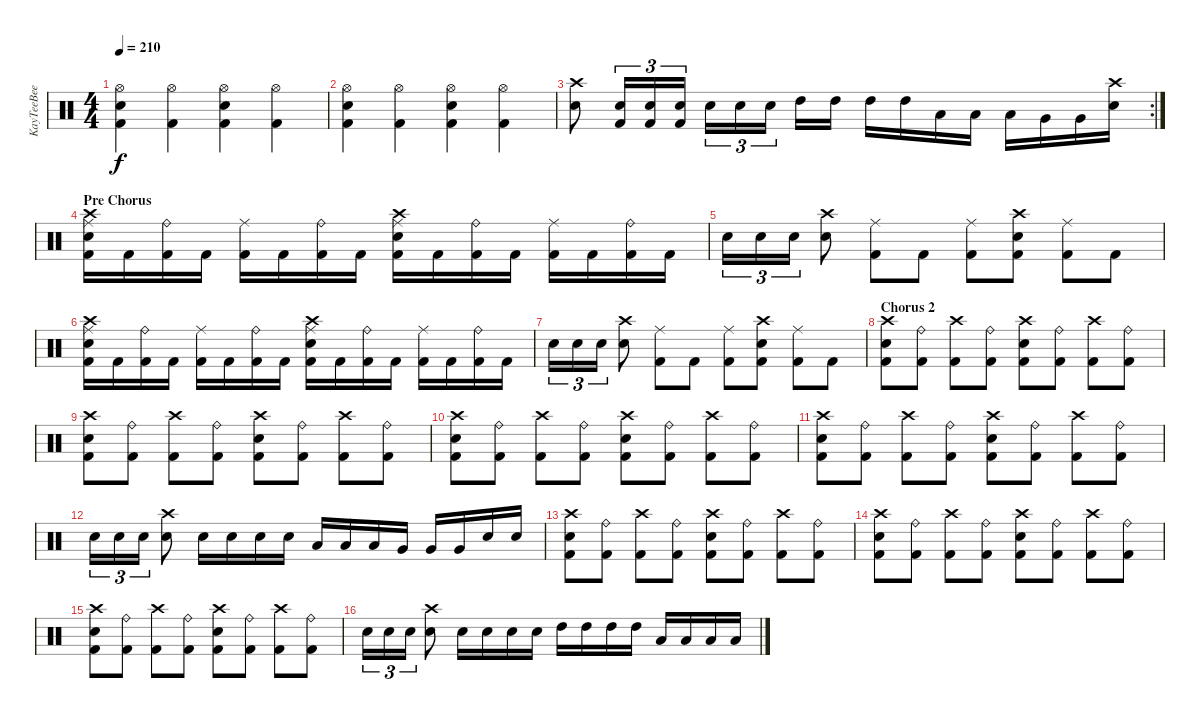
\track ("KayTeeBee" "KayTeeBee") {instrument percussion}
\staff {score}
\articulation defaults
\ts (4 4)
\tempo 210
\clef neutral
\ks c
("Hi-Hat (open)" "Electric Snare (hit)" "Kick (hit) 2").4{dy f} ("Hi-Hat (open)" "Kick (hit) 2").4 ("Hi-Hat (open)" "Electric Snare (hit)" "Kick (hit) 2").4 ("Hi-Hat (open)" "Kick (hit) 2").4 |
("Hi-Hat (open)" "Electric Snare (hit)" "Kick (hit) 2").4 ("Hi-Hat (open)" "Kick (hit) 2").4 ("Hi-Hat (open)" "Electric Snare (hit)" "Kick (hit) 2").4 ("Hi-Hat (open)" "Kick (hit) 2").4 |
\rc 2
("Crash high (hit)" "Electric Snare (hit)").8 ("Kick (hit) 2" "Electric Snare (hit)").16{tu (3 2)} ("Kick (hit) 2" "Electric Snare (hit)").16{tu (3 2)} ("Kick (hit) 2" "Electric Snare (hit)").16{tu (3 2)} "Electric Snare (hit)".16{tu (3 2)} "Electric Snare (hit)".16{tu (3 2)} "Electric Snare (hit)".16{tu (3 2)} "High Tom (hit)".16 "High Tom (hit)".16 "High Tom (hit)".16 "High Tom (hit)".16 "Low Tom (hit)".16 "Low Tom (hit)".16 "Low Tom (hit)".16 "Very Low Tom (hit)".16 "Very Low Tom (hit)".16 ("Electric Snare (hit)" "Crash high (hit)").16 |
\section ("" "Pre Chorus")
("Kick (hit) 2" "Electric Snare (hit)" "Crash high (hit)" "Ride (middle)").16 "Kick (hit) 2".16 ("Kick (hit) 2" "Ride (bell)").16 "Kick (hit) 2".16 ("Kick (hit) 2" "Ride (middle)").16 "Kick (hit) 2".16 ("Kick (hit) 2" "Ride (bell)").16 "Kick (hit) 2".16 ("Kick (hit) 2" "Electric Snare (hit)" "Crash high (hit)" "Ride (middle)").16 "Kick (hit) 2".16 ("Kick (hit) 2" "Ride (bell)").16 "Kick (hit) 2".16 ("Kick (hit) 2" "Ride (middle)").16 "Kick (hit) 2".16 ("Kick (hit) 2" "Ride (bell)").16 "Kick (hit) 2".16 |
"Electric Snare (hit)".16{tu (3 2)} "Electric Snare (hit)".16{tu (3 2)} "Electric Snare (hit)".16{tu (3 2)} ("Crash high (hit)" "Electric Snare (hit)").8 ("Kick (hit) 2" "Ride (middle)").8 "Kick (hit) 2".8 ("Kick (hit) 2" "Ride (middle)").8 ("Kick (hit) 2" "Crash high (hit)" "Electric Snare (hit)").8 ("Kick (hit) 2" "Ride (middle)").8 "Kick (hit) 2".8 |
("Kick (hit) 2" "Electric Snare (hit)" "Crash high (hit)" "Ride (middle)").16 "Kick (hit) 2".16 ("Kick (hit) 2" "Ride (bell)").16 "Kick (hit) 2".16 ("Kick (hit) 2" "Ride (middle)").16 "Kick (hit) 2".16 ("Kick (hit) 2" "Ride (bell)").16 "Kick (hit) 2".16 ("Kick (hit) 2" "Electric Snare (hit)" "Crash high (hit)" "Ride (middle)").16 "Kick (hit) 2".16 ("Kick (hit) 2" "Ride (bell)").16 "Kick (hit) 2".16 ("Kick (hit) 2" "Ride (middle)").16 "Kick (hit) 2".16 ("Kick (hit) 2" "Ride (bell)").16 "Kick (hit) 2".16 |
"Electric Snare (hit)".16{tu (3 2)} "Electric Snare (hit)".16{tu (3 2)} "Electric Snare (hit)".16{tu (3 2)} ("Crash high (hit)" "Electric Snare (hit)").8 ("Kick (hit) 2" "Ride (middle)").8 "Kick (hit) 2".8 ("Kick (hit) 2" "Ride (middle)").8 ("Kick (hit) 2" "Crash high (hit)" "Electric Snare (hit)").8 ("Kick (hit) 2" "Ride (middle)").8 "Kick (hit) 2".8 |
\section ("" "Chorus 2")
("Kick (hit) 2" "Electric Snare (hit)" "Crash high (hit)").8 ("Kick (hit) 2" "Ride (bell)").8 ("Kick (hit) 2" "Crash high (hit)").8 ("Kick (hit) 2" "Ride (bell)").8 ("Kick (hit) 2" "Crash high (hit)" "Electric Snare (hit)").8 ("Kick (hit) 2" "Ride (bell)").8 ("Kick (hit) 2" "Crash high (hit)").8 ("Kick (hit) 2" "Ride (bell)").8 |
("Kick (hit) 2" "Electric Snare (hit)" "Crash high (hit)").8 ("Kick (hit) 2" "Ride (bell)").8 ("Kick (hit) 2" "Crash high (hit)").8 ("Kick (hit) 2" "Ride (bell)").8 ("Kick (hit) 2" "Crash high (hit)" "Electric Snare (hit)").8 ("Kick (hit) 2" "Ride (bell)").8 ("Kick (hit) 2" "Crash high (hit)").8 ("Kick (hit) 2" "Ride (bell)").8 |
("Kick (hit) 2" "Electric Snare (hit)" "Crash high (hit)").8 ("Kick (hit) 2" "Ride (bell)").8 ("Kick (hit) 2" "Crash high (hit)").8 ("Kick (hit) 2" "Ride (bell)").8 ("Kick (hit) 2" "Crash high (hit)" "Electric Snare (hit)").8 ("Kick (hit) 2" "Ride (bell)").8 ("Kick (hit) 2" "Crash high (hit)").8 ("Kick (hit) 2" "Ride (bell)").8 |
("Kick (hit) 2" "Electric Snare (hit)" "Crash high (hit)").8 ("Kick (hit) 2" "Ride (bell)").8 ("Kick (hit) 2" "Crash high (hit)").8 ("Kick (hit) 2" "Ride (bell)").8 ("Kick (hit) 2" "Crash high (hit)" "Electric Snare (hit)").8 ("Kick (hit) 2" "Ride (bell)").8 ("Kick (hit) 2" "Crash high (hit)").8 ("Kick (hit) 2" "Ride (bell)").8 |
"Electric Snare (hit)".16{tu (3 2)} "Electric Snare (hit)".16{tu (3 2)} "Electric Snare (hit)".16{tu (3 2)} ("Electric Snare (hit)" "Crash high (hit)").8 "Electric Snare (hit)".16 "Electric Snare (hit)".16 "Electric Snare (hit)".16 "Electric Snare (hit)".16 "Low Tom (hit)".16 "Low Tom (hit)".16 "Low Tom (hit)".16 "Very Low Tom (hit)".16 "Very Low Tom (hit)".16 "Very Low Tom (hit)".16 "Electric Snare (hit)".16 "Electric Snare (hit)".16 |
("Kick (hit) 2" "Electric Snare (hit)" "Crash high (hit)").8 ("Kick (hit) 2" "Ride (bell)").8 ("Kick (hit) 2" "Crash high (hit)").8 ("Kick (hit) 2" "Ride (bell)").8 ("Kick (hit) 2" "Crash high (hit)" "Electric Snare (hit)").8 ("Kick (hit) 2" "Ride (bell)").8 ("Kick (hit) 2" "Crash high (hit)").8 ("Kick (hit) 2" "Ride (bell)").8 |
("Kick (hit) 2" "Electric Snare (hit)" "Crash high (hit)").8 ("Kick (hit) 2" "Ride (bell)").8 ("Kick (hit) 2" "Crash high (hit)").8 ("Kick (hit) 2" "Ride (bell)").8 ("Kick (hit) 2" "Crash high (hit)" "Electric Snare (hit)").8 ("Kick (hit) 2" "Ride (bell)").8 ("Kick (hit) 2" "Crash high (hit)").8 ("Kick (hit) 2" "Ride (bell)").8 |
("Kick (hit) 2" "Electric Snare (hit)" "Crash high (hit)").8 ("Kick (hit) 2" "Ride (bell)").8 ("Kick (hit) 2" "Crash high (hit)").8 ("Kick (hit) 2" "Ride (bell)").8 ("Kick (hit) 2" "Crash high (hit)" "Electric Snare (hit)").8 ("Kick (hit) 2" "Ride (bell)").8 ("Kick (hit) 2" "Crash high (hit)").8 ("Kick (hit) 2" "Ride (bell)").8 |
"Electric Snare (hit)".16{tu (3 2)} "Electric Snare (hit)".16{tu (3 2)} "Electric Snare (hit)".16{tu (3 2)} ("Electric Snare (hit)" "Crash high (hit)").8 "Electric Snare (hit)".16 "Electric Snare (hit)".16 "Electric Snare (hit)".16 "Electric Snare (hit)".16 "High Tom (hit)".16 "High Tom (hit)".16 "High Tom (hit)".16 "High Tom (hit)".16 "Low Tom (hit)".16 "Low Tom (hit)".16 "Low Tom (hit)".16 "Low Tom (hit)".16
